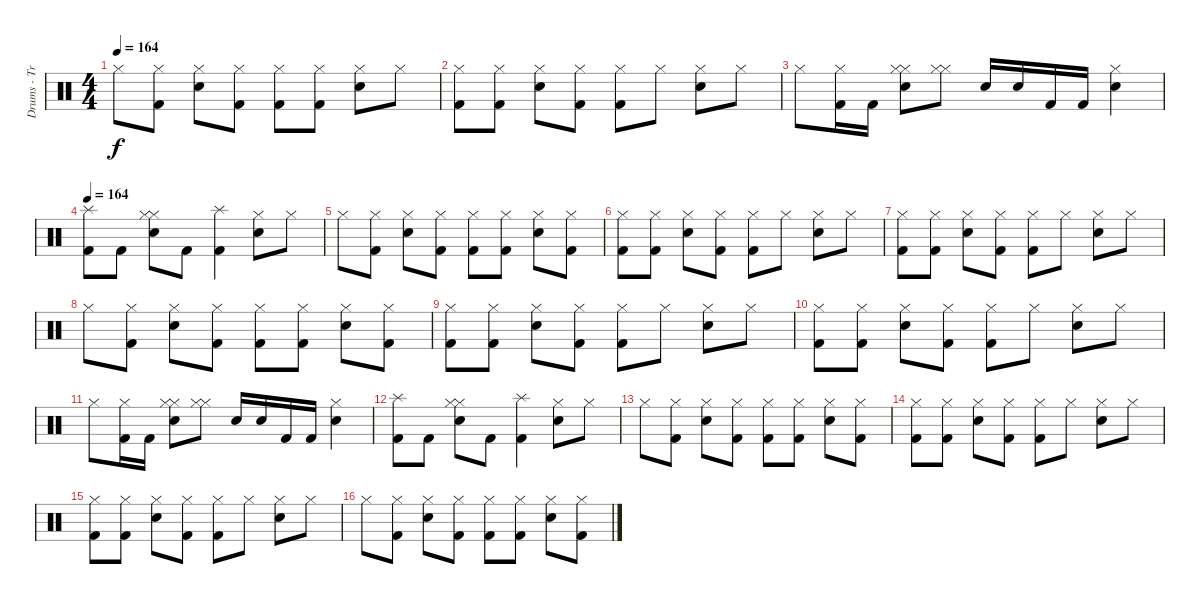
\track ("Drums - Travis Barker" "Drums - Tr") {instrument percussion}
\staff {score}
\articulation defaults
\ts (4 4)
\tempo 164
\clef neutral
\ks c "Hi-Hat (closed)".8{dy f}
("Hi-Hat (closed)" "Kick (hit) 2").8 ("Hi-Hat (closed)" "Electric Snare (hit)").8 ("Hi-Hat (closed)" "Kick (hit) 2").8 ("Hi-Hat (closed)" "Kick (hit) 2").8 ("Hi-Hat (closed)" "Kick (hit) 2").8 ("Hi-Hat (closed)" "Electric Snare (hit)").8 "Hi-Hat (closed)".8 |
("Hi-Hat (closed)" "Kick (hit) 2").8 ("Hi-Hat (closed)" "Kick (hit) 2").8 ("Hi-Hat (closed)" "Electric Snare (hit)").8 ("Hi-Hat (closed)" "Kick (hit) 2").8 ("Hi-Hat (closed)" "Kick (hit) 2").8 "Hi-Hat (closed)".8 ("Hi-Hat (closed)" "Electric Snare (hit)").8 "Hi-Hat (closed)".8 |
"Hi-Hat (closed)".8 ("Hi-Hat (closed)" "Kick (hit) 2").16 "Kick (hit) 2".16 ("Hi-Hat (closed)" "Hi-Hat (closed)" "Electric Snare (hit)").8 ("Hi-Hat (closed)" "Hi-Hat (closed)").8 "Electric Snare (hit)".16 "Electric Snare (hit)".16 "Kick (hit) 2".16 "Kick (hit) 2".16 ("Hi-Hat (closed)" "Electric Snare (hit)").4 |
\tempo 164
("Splash (hit)" "Kick (hit) 2").8 "Kick (hit) 2".8 ("Hi-Hat (closed)" "Hi-Hat (closed)" "Electric Snare (hit)").8 "Kick (hit) 2".8 ("Splash (hit)" "Kick (hit) 2").4 ("Hi-Hat (closed)" "Electric Snare (hit)").8 "Hi-Hat (closed)".8 |
"Hi-Hat (closed)".8 ("Hi-Hat (closed)" "Kick (hit) 2").8 ("Hi-Hat (closed)" "Electric Snare (hit)").8 ("Hi-Hat (closed)" "Kick (hit) 2").8 ("Hi-Hat (closed)" "Kick (hit) 2").8 ("Hi-Hat (closed)" "Kick (hit) 2").8 ("Hi-Hat (closed)" "Electric Snare (hit)").8 ("Hi-Hat (closed)" "Kick (hit) 2").8 |
("Hi-Hat (closed)" "Kick (hit) 2").8 ("Hi-Hat (closed)" "Kick (hit) 2").8 ("Hi-Hat (closed)" "Electric Snare (hit)").8 ("Hi-Hat (closed)" "Kick (hit) 2").8 ("Hi-Hat (closed)" "Kick (hit) 2").8 "Hi-Hat (closed)".8 ("Hi-Hat (closed)" "Electric Snare (hit)").8 "Hi-Hat (closed)".8 |
("Hi-Hat (closed)" "Kick (hit) 2").8 ("Hi-Hat (closed)" "Kick (hit) 2").8 ("Hi-Hat (closed)" "Electric Snare (hit)").8 ("Hi-Hat (closed)" "Kick (hit) 2").8 ("Hi-Hat (closed)" "Kick (hit) 2").8 "Hi-Hat (closed)".8 ("Hi-Hat (closed)" "Electric Snare (hit)").8 "Hi-Hat (closed)".8 |
"Hi-Hat (closed)".8 ("Hi-Hat (closed)" "Kick (hit) 2").8 ("Hi-Hat (closed)" "Electric Snare (hit)").8 ("Hi-Hat (closed)" "Kick (hit) 2").8 ("Hi-Hat (closed)" "Kick (hit) 2").8 ("Hi-Hat (closed)" "Kick (hit) 2").8 ("Hi-Hat (closed)" "Electric Snare (hit)").8 ("Hi-Hat (closed)" "Kick (hit) 2").8 |
("Hi-Hat (closed)" "Kick (hit) 2").8 ("Hi-Hat (closed)" "Kick (hit) 2").8 ("Hi-Hat (closed)" "Electric Snare (hit)").8 ("Hi-Hat (closed)" "Kick (hit) 2").8 ("Hi-Hat (closed)" "Kick (hit) 2").8 "Hi-Hat (closed)".8 ("Hi-Hat (closed)" "Electric Snare (hit)").8 "Hi-Hat (closed)".8 |
("Hi-Hat (closed)" "Kick (hit) 2").8 ("Hi-Hat (closed)" "Kick (hit) 2").8 ("Hi-Hat (closed)" "Electric Snare (hit)").8 ("Hi-Hat (closed)" "Kick (hit) 2").8 ("Hi-Hat (closed)" "Kick (hit) 2").8 "Hi-Hat (closed)".8 ("Hi-Hat (closed)" "Electric Snare (hit)").8 "Hi-Hat (closed)".8 |
"Hi-Hat (closed)".8 ("Hi-Hat (closed)" "Kick (hit) 2").16 "Kick (hit) 2".16 ("Hi-Hat (closed)" "Hi-Hat (closed)" "Electric Snare (hit)").8 ("Hi-Hat (closed)" "Hi-Hat (closed)").8 "Electric Snare (hit)".16 "Electric Snare (hit)".16 "Kick (hit) 2".16 "Kick (hit) 2".16 ("Hi-Hat (closed)" "Electric Snare (hit)").4 |
("Splash (hit)" "Kick (hit) 2").8 "Kick (hit) 2".8 ("Hi-Hat (closed)" "Hi-Hat (closed)" "Electric Snare (hit)").8 "Kick (hit) 2".8 ("Splash (hit)" "Kick (hit) 2").4 ("Hi-Hat (closed)" "Electric Snare (hit)").8 "Hi-Hat (closed)".8 |
"Hi-Hat (closed)".8 ("Hi-Hat (closed)" "Kick (hit) 2").8 ("Hi-Hat (closed)" "Electric Snare (hit)").8 ("Hi-Hat (closed)" "Kick (hit) 2").8 ("Hi-Hat (closed)" "Kick (hit) 2").8 ("Hi-Hat (closed)" "Kick (hit) 2").8 ("Hi-Hat (closed)" "Electric Snare (hit)").8 ("Hi-Hat (closed)" "Kick (hit) 2").8 |
("Hi-Hat (closed)" "Kick (hit) 2").8 ("Hi-Hat (closed)" "Kick (hit) 2").8 ("Hi-Hat (closed)" "Electric Snare (hit)").8 ("Hi-Hat (closed)" "Kick (hit) 2").8 ("Hi-Hat (closed)" "Kick (hit) 2").8 "Hi-Hat (closed)".8 ("Hi-Hat (closed)" "Electric Snare (hit)").8 "Hi-Hat (closed)".8 |
("Hi-Hat (closed)" "Kick (hit) 2").8 ("Hi-Hat (closed)" "Kick (hit) 2").8 ("Hi-Hat (closed)" "Electric Snare (hit)").8 ("Hi-Hat (closed)" "Kick (hit) 2").8 ("Hi-Hat (closed)" "Kick (hit) 2").8 "Hi-Hat (closed)".8 ("Hi-Hat (closed)" "Electric Snare (hit)").8 "Hi-Hat (closed)".8 |
"Hi-Hat (closed)".8 ("Hi-Hat (closed)" "Kick (hit) 2").8 ("Hi-Hat (closed)" "Electric Snare (hit)").8 ("Hi-Hat (closed)" "Kick (hit) 2").8 ("Hi-Hat (closed)" "Kick (hit) 2").8 ("Hi-Hat (closed)" "Kick (hit) 2").8 ("Hi-Hat (closed)" "Electric Snare (hit)").8 ("Hi-Hat (closed)" "Kick (hit) 2").8
